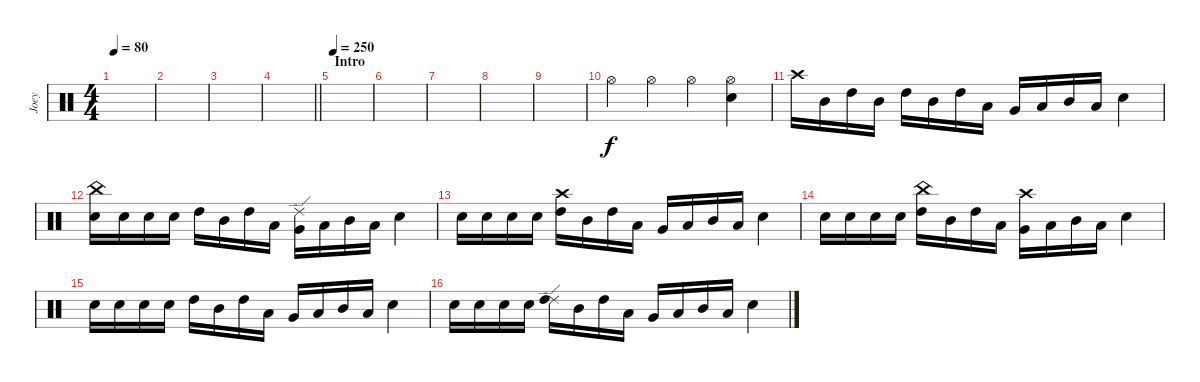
\track ("Joey" "Joey") {instrument percussion}
\staff {score}
\articulation defaults
\ts (4 4)
\tempo 80
\clef neutral
\ks c
|
|
|
\barLineRight lightlight
|
\section ("" "Intro")
\tempo 250
|
|
|
|
|
"Hi-Hat (open)".4 "Hi-Hat (open)".4 "Hi-Hat (open)".4 ("Hi-Hat (open)" "Snare (hit) 2").4 |
"Crash high (hit)".16 "Mid Tom (hit)".16 "High Tom (hit)".16 "Mid Tom (hit)".16 "High Tom (hit)".16 "Mid Tom (hit)".16 "High Tom (hit)".16 "Low Tom (hit)".16 "Very Low Tom (hit)".16 "Low Floor Tom (hit)".16 "Mid Tom (hit)".16 "Low Floor Tom (hit)".16 "Snare (hit) 2".4 |
("China (hit)" "Snare (hit) 2").16 "Snare (hit) 2".16 "Snare (hit) 2".16 "Snare (hit) 2".16 "High Tom (hit)".16 "Mid Tom (hit)".16 "High Tom (hit)".16 "Low Tom (hit)".16 ("Ride (edge) 2" "Very Low Tom (hit)").16 "Low Floor Tom (hit)".16 "Mid Tom (hit)".16 "Low Floor Tom (hit)".16 "Snare (hit) 2".4 |
"Snare (hit) 2".16 "Snare (hit) 2".16 "Snare (hit) 2".16 "Snare (hit) 2".16 ("Crash high (hit)" "High Tom (hit)").16 "Mid Tom (hit)".16 "High Tom (hit)".16 "Low Tom (hit)".16 "Very Low Tom (hit)".16 "Low Floor Tom (hit)".16 "Mid Tom (hit)".16 "Low Floor Tom (hit)".16 "Snare (hit) 2".4 |
"Snare (hit) 2".16 "Snare (hit) 2".16 "Snare (hit) 2".16 "Snare (hit) 2".16 ("China (hit)" "High Tom (hit)").16 "Mid Tom (hit)".16 "High Tom (hit)".16 "Low Tom (hit)".16 ("Crash high (hit)" "Very Low Tom (hit)").16 "Low Floor Tom (hit)".16 "Mid Tom (hit)".16 "Low Floor Tom (hit)".16 "Snare (hit) 2".4 |
"Snare (hit) 2".16 "Snare (hit) 2".16 "Snare (hit) 2".16 "Snare (hit) 2".16 "High Tom (hit)".16 "Mid Tom (hit)".16 "High Tom (hit)".16 "Low Tom (hit)".16 "Very Low Tom (hit)".16 "Low Floor Tom (hit)".16 "Mid Tom (hit)".16 "Low Floor Tom (hit)".16 "Snare (hit) 2".4 |
"Snare (hit) 2".16 "Snare (hit) 2".16 "Snare (hit) 2".16 "Snare (hit) 2".16 ("Ride (edge) 2" "High Tom (hit)").16 "Mid Tom (hit)".16 "High Tom (hit)".16 "Low Tom (hit)".16 "Very Low Tom (hit)".16 "Low Floor Tom (hit)".16 "Mid Tom (hit)".16 "Low Floor Tom (hit)".16 "Snare (hit) 2".4
